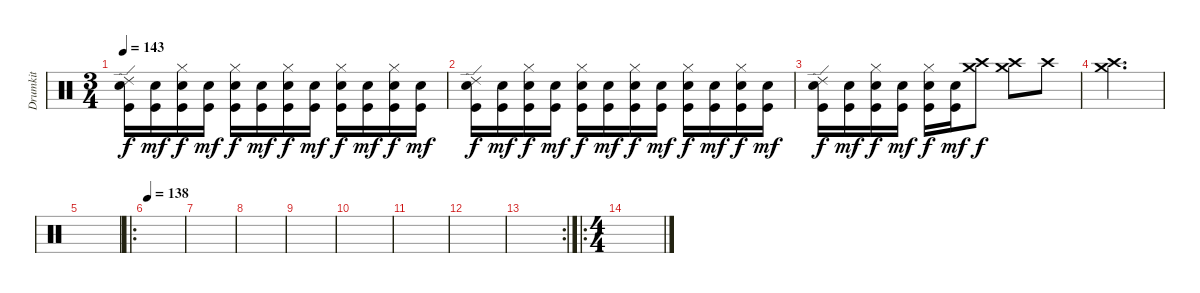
\track ("Drumkit" "Drumkit") {instrument percussion}
\staff {score}
\articulation defaults
\ts (3 4)
\tempo 143
\clef neutral
\ks c
("Kick (hit)" "Snare (hit) 2" "Ride (edge) 2").16{dy f} ("Snare (hit) 2" "Kick (hit)").16{dy mf} ("Kick (hit)" "Snare (hit) 2" "Hi-Hat (closed)").16{dy f} ("Snare (hit) 2" "Kick (hit)").16{dy mf} ("Kick (hit)" "Snare (hit) 2" "Hi-Hat (closed)").16{dy f} ("Snare (hit) 2" "Kick (hit)").16{dy mf} ("Kick (hit)" "Snare (hit) 2" "Hi-Hat (closed)").16{dy f} ("Snare (hit) 2" "Kick (hit)").16{dy mf} ("Kick (hit)" "Snare (hit) 2" "Hi-Hat (closed)").16{dy f} ("Snare (hit) 2" "Kick (hit)").16{dy mf} ("Kick (hit)" "Snare (hit) 2" "Hi-Hat (closed)").16{dy f} ("Snare (hit) 2" "Kick (hit)").16{dy mf} |
("Kick (hit)" "Snare (hit) 2" "Ride (edge) 2").16{dy f} ("Snare (hit) 2" "Kick (hit)").16{dy mf} ("Kick (hit)" "Snare (hit) 2" "Hi-Hat (closed)").16{dy f} ("Snare (hit) 2" "Kick (hit)").16{dy mf} ("Kick (hit)" "Snare (hit) 2" "Hi-Hat (closed)").16{dy f} ("Snare (hit) 2" "Kick (hit)").16{dy mf} ("Kick (hit)" "Snare (hit) 2" "Hi-Hat (closed)").16{dy f} ("Snare (hit) 2" "Kick (hit)").16{dy mf} ("Kick (hit)" "Snare (hit) 2" "Hi-Hat (closed)").16{dy f} ("Snare (hit) 2" "Kick (hit)").16{dy mf} ("Kick (hit)" "Snare (hit) 2" "Hi-Hat (closed)").16{dy f} ("Snare (hit) 2" "Kick (hit)").16{dy mf} |
("Kick (hit)" "Snare (hit) 2" "Ride (edge) 2").16{dy f} ("Snare (hit) 2" "Kick (hit)").16{dy mf} ("Kick (hit)" "Snare (hit) 2" "Hi-Hat (closed)").16{dy f} ("Snare (hit) 2" "Kick (hit)").16{dy mf} ("Kick (hit)" "Snare (hit) 2" "Hi-Hat (closed)").16{dy f} ("Snare (hit) 2" "Kick (hit)").16{dy mf} ("Crash high (hit)" "Crash medium (hit)").8{dy f} ("Crash medium (hit)" "Crash high (hit)").8 "Crash high (hit)".8 |
("Crash high (hit)" "Crash medium (hit)").2{d} |
|
\ro
\tempo 138
|
|
|
|
|
|
|
\rc 2
|
\ro
\ts (4 4)
